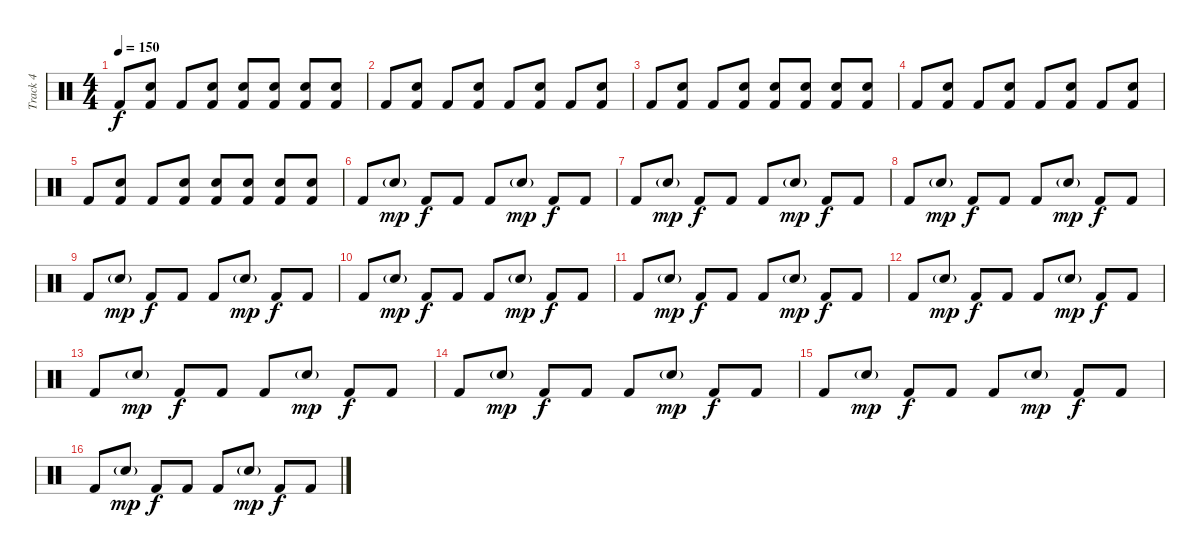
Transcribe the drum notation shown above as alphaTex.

\track ("Track 4" "Track 4") {instrument percussion}
\staff {score}
\articulation defaults
\ts (4 4)
\tempo 150
\clef neutral
\ks c "Kick (hit) 2".8{dy f}
("Kick (hit) 2" "Snare (hit) 2").8 "Kick (hit) 2".8 ("Kick (hit) 2" "Snare (hit) 2").8 ("Kick (hit) 2" "Snare (hit) 2").8 ("Kick (hit) 2" "Snare (hit) 2").8 ("Kick (hit) 2" "Snare (hit) 2").8 ("Kick (hit) 2" "Snare (hit) 2").8 |
"Kick (hit) 2".8 ("Kick (hit) 2" "Snare (hit) 2").8 "Kick (hit) 2".8 ("Kick (hit) 2" "Snare (hit) 2").8 "Kick (hit) 2".8 ("Kick (hit) 2" "Snare (hit) 2").8 "Kick (hit) 2".8 ("Kick (hit) 2" "Snare (hit) 2").8 |
"Kick (hit) 2".8 ("Kick (hit) 2" "Snare (hit) 2").8 "Kick (hit) 2".8 ("Kick (hit) 2" "Snare (hit) 2").8 ("Kick (hit) 2" "Snare (hit) 2").8 ("Kick (hit) 2" "Snare (hit) 2").8 ("Kick (hit) 2" "Snare (hit) 2").8 ("Kick (hit) 2" "Snare (hit) 2").8 |
"Kick (hit) 2".8 ("Kick (hit) 2" "Snare (hit) 2").8 "Kick (hit) 2".8 ("Kick (hit) 2" "Snare (hit) 2").8 "Kick (hit) 2".8 ("Kick (hit) 2" "Snare (hit) 2").8 "Kick (hit) 2".8 ("Kick (hit) 2" "Snare (hit) 2").8 |
"Kick (hit) 2".8 ("Kick (hit) 2" "Snare (hit) 2").8 "Kick (hit) 2".8 ("Kick (hit) 2" "Snare (hit) 2").8 ("Kick (hit) 2" "Snare (hit) 2").8 ("Kick (hit) 2" "Snare (hit) 2").8 ("Kick (hit) 2" "Snare (hit) 2").8 ("Kick (hit) 2" "Snare (hit) 2").8 |
"Kick (hit) 2".8 "Snare (hit) 2"{g}.8{dy mp} "Kick (hit) 2".8{dy f} "Kick (hit) 2".8 "Kick (hit) 2".8 "Snare (hit) 2"{g}.8{dy mp} "Kick (hit) 2".8{dy f} "Kick (hit) 2".8 |
"Kick (hit) 2".8 "Snare (hit) 2"{g}.8{dy mp} "Kick (hit) 2".8{dy f} "Kick (hit) 2".8 "Kick (hit) 2".8 "Snare (hit) 2"{g}.8{dy mp} "Kick (hit) 2".8{dy f} "Kick (hit) 2".8 |
"Kick (hit) 2".8 "Snare (hit) 2"{g}.8{dy mp} "Kick (hit) 2".8{dy f} "Kick (hit) 2".8 "Kick (hit) 2".8 "Snare (hit) 2"{g}.8{dy mp} "Kick (hit) 2".8{dy f} "Kick (hit) 2".8 |
"Kick (hit) 2".8 "Snare (hit) 2"{g}.8{dy mp} "Kick (hit) 2".8{dy f} "Kick (hit) 2".8 "Kick (hit) 2".8 "Snare (hit) 2"{g}.8{dy mp} "Kick (hit) 2".8{dy f} "Kick (hit) 2".8 |
"Kick (hit) 2".8 "Snare (hit) 2"{g}.8{dy mp} "Kick (hit) 2".8{dy f} "Kick (hit) 2".8 "Kick (hit) 2".8 "Snare (hit) 2"{g}.8{dy mp} "Kick (hit) 2".8{dy f} "Kick (hit) 2".8 |
"Kick (hit) 2".8 "Snare (hit) 2"{g}.8{dy mp} "Kick (hit) 2".8{dy f} "Kick (hit) 2".8 "Kick (hit) 2".8 "Snare (hit) 2"{g}.8{dy mp} "Kick (hit) 2".8{dy f} "Kick (hit) 2".8 |
"Kick (hit) 2".8 "Snare (hit) 2"{g}.8{dy mp} "Kick (hit) 2".8{dy f} "Kick (hit) 2".8 "Kick (hit) 2".8 "Snare (hit) 2"{g}.8{dy mp} "Kick (hit) 2".8{dy f} "Kick (hit) 2".8 |
"Kick (hit) 2".8 "Snare (hit) 2"{g}.8{dy mp} "Kick (hit) 2".8{dy f} "Kick (hit) 2".8 "Kick (hit) 2".8 "Snare (hit) 2"{g}.8{dy mp} "Kick (hit) 2".8{dy f} "Kick (hit) 2".8 |
"Kick (hit) 2".8 "Snare (hit) 2"{g}.8{dy mp} "Kick (hit) 2".8{dy f} "Kick (hit) 2".8 "Kick (hit) 2".8 "Snare (hit) 2"{g}.8{dy mp} "Kick (hit) 2".8{dy f} "Kick (hit) 2".8 |
"Kick (hit) 2".8 "Snare (hit) 2"{g}.8{dy mp} "Kick (hit) 2".8{dy f} "Kick (hit) 2".8 "Kick (hit) 2".8 "Snare (hit) 2"{g}.8{dy mp} "Kick (hit) 2".8{dy f} "Kick (hit) 2".8 |
"Kick (hit) 2".8 "Snare (hit) 2"{g}.8{dy mp} "Kick (hit) 2".8{dy f} "Kick (hit) 2".8 "Kick (hit) 2".8 "Snare (hit) 2"{g}.8{dy mp} "Kick (hit) 2".8{dy f} "Kick (hit) 2".8
